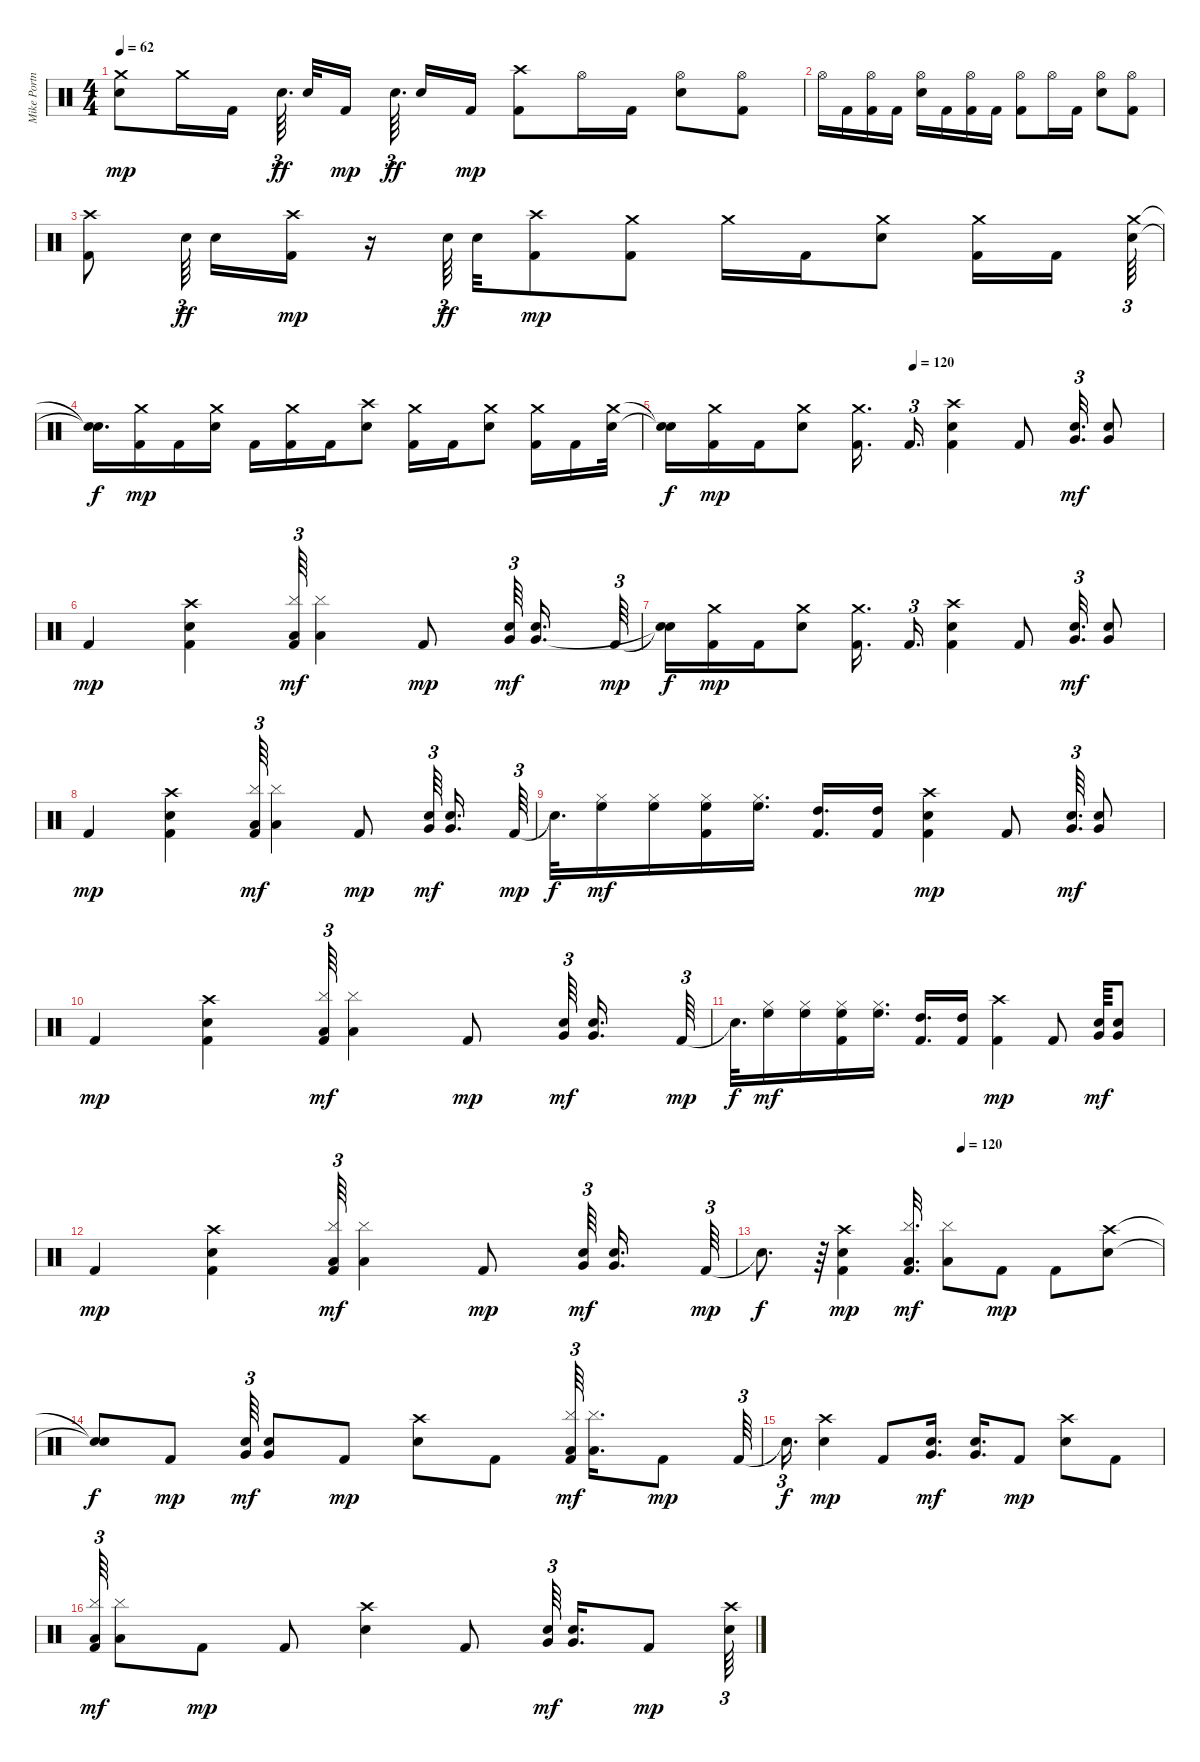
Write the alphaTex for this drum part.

\track ("Mike Portnoy" "Mike Portn") {instrument percussion}
\staff {score}
\articulation defaults
\ts (4 4)
\tempo 62
\clef neutral
\ks c
("Electric Snare (hit)" "Crash medium (hit)").8{dy mp} "Crash medium (hit)".16 "Kick (hit) 2".16 "Electric Snare (hit)".64{d tu (3 2) dy ff} "Electric Snare (hit)".32 "Kick (hit) 2".16{dy mp} "Electric Snare (hit)".64{d tu (3 2) dy ff} "Electric Snare (hit)".16 "Kick (hit) 2".16{dy mp} ("Kick (hit) 2" "Crash high (hit)").8 "Hi-Hat (open)".16 "Kick (hit) 2".16 ("Electric Snare (hit)" "Hi-Hat (open)").8 ("Kick (hit) 2" "Hi-Hat (open)").8 |
"Hi-Hat (open)".16 "Kick (hit) 2".16 ("Kick (hit) 2" "Hi-Hat (open)").16 "Kick (hit) 2".16 ("Electric Snare (hit)" "Hi-Hat (open)").16 "Kick (hit) 2".16 ("Kick (hit) 2" "Hi-Hat (open)").16 "Kick (hit) 2".16 ("Kick (hit) 2" "Hi-Hat (open)").8 "Hi-Hat (open)".16 "Kick (hit) 2".16 ("Electric Snare (hit)" "Hi-Hat (open)").8 ("Kick (hit) 2" "Hi-Hat (open)").8 |
("Kick (hit) 2" "Crash high (hit)").8 "Electric Snare (hit)".64{tu (3 2) dy ff} "Electric Snare (hit)".16 ("Kick (hit) 2" "Crash high (hit)").16{dy mp} r.16 "Electric Snare (hit)".64{tu (3 2) dy ff} "Electric Snare (hit)".32 ("Kick (hit) 2" "Crash high (hit)").8{dy mp} ("Kick (hit) 2" "Crash medium (hit)").8 "Crash medium (hit)".16 "Kick (hit) 2".16 ("Electric Snare (hit)" "Crash medium (hit)").8 ("Kick (hit) 2" "Crash medium (hit)").16 "Kick (hit) 2".16 ("Electric Snare (hit)" "Crash medium (hit)").64{tu (3 2)} |
("Snare (hit)"{t} "Snare (hit)"{t}).16{d dy f} ("Kick (hit) 2" "Crash medium (hit)").16{dy mp} "Kick (hit) 2".16 ("Electric Snare (hit)" "Crash medium (hit)").16 "Kick (hit) 2".16 ("Kick (hit) 2" "Crash medium (hit)").16 "Kick (hit) 2".16 ("Electric Snare (hit)" "Crash high (hit)").8 ("Kick (hit) 2" "Crash medium (hit)").16 "Kick (hit) 2".16 ("Electric Snare (hit)" "Crash medium (hit)").8 ("Kick (hit) 2" "Crash medium (hit)").16 "Kick (hit) 2".16 ("Electric Snare (hit)" "Crash medium (hit)").32 |
\tempo (120 0.5)
("Snare (hit)"{t} "Snare (hit)"{t}).16{dy f} ("Kick (hit) 2" "Crash medium (hit)").16{dy mp} "Kick (hit) 2".16 ("Electric Snare (hit)" "Crash medium (hit)").8 ("Kick (hit) 2" "Crash medium (hit)").16{d} "Kick (hit) 2".16{d tu (3 2)} ("Kick (hit) 2" "Electric Snare (hit)" "Crash high (hit)").4 "Kick (hit) 2".8 ("Snare (hit)" "Very Low Tom (hit)").32{d tu (3 2) dy mf balance 12} ("Snare (hit)" "Very Low Tom (hit)").8 |
"Kick (hit) 2".4{dy mp} ("Kick (hit) 2" "Electric Snare (hit)" "Crash high (hit)").4 ("Kick (hit) 2" "Cymbal (hit)" "Low Tom (hit)").64{tu (3 2) dy mf balance 10} ("Cymbal (hit)" "Low Tom (hit)").4 "Kick (hit) 2".8{dy mp} ("Snare (hit)" "Very Low Tom (hit)").64{tu (3 2) dy mf balance 12} ("Snare (hit)" "Very Low Tom (hit)").16{d} "Kick (hit) 2".64{tu (3 2) dy mp} |
("Snare (hit)"{t} "Snare (hit)"{t}).16{dy f} ("Kick (hit) 2" "Crash medium (hit)").16{dy mp} "Kick (hit) 2".16 ("Electric Snare (hit)" "Crash medium (hit)").8 ("Kick (hit) 2" "Crash medium (hit)").16{d} "Kick (hit) 2".16{d tu (3 2)} ("Kick (hit) 2" "Electric Snare (hit)" "Crash high (hit)").4 "Kick (hit) 2".8 ("Snare (hit)" "Very Low Tom (hit)").32{d tu (3 2) dy mf balance 12} ("Snare (hit)" "Very Low Tom (hit)").8 |
"Kick (hit) 2".4{dy mp} ("Kick (hit) 2" "Electric Snare (hit)" "Crash high (hit)").4 ("Kick (hit) 2" "Cymbal (hit)" "Low Tom (hit)").64{tu (3 2) dy mf balance 10} ("Cymbal (hit)" "Low Tom (hit)").4 "Kick (hit) 2".8{dy mp} ("Snare (hit)" "Very Low Tom (hit)").64{tu (3 2) dy mf balance 12} ("Snare (hit)" "Very Low Tom (hit)").16{d} "Kick (hit) 2".64{tu (3 2) dy mp} |
"Snare (hit)"{t}.32{d dy f} ("Hi-Hat (closed)" "High Floor Tom (hit)").16{dy mf balance 2} ("Hi-Hat (closed)" "High Floor Tom (hit)").16 ("Kick (hit) 2" "Hi-Hat (closed)" "High Floor Tom (hit)").16 ("Hi-Hat (closed)" "High Floor Tom (hit)").16{d} ("Kick (hit) 2" "High Tom (hit)").16{d balance 5} ("Kick (hit) 2" "High Tom (hit)").16 ("Kick (hit) 2" "Electric Snare (hit)" "Crash high (hit)").4{dy mp} "Kick (hit) 2".8 ("Snare (hit)" "Very Low Tom (hit)").64{d tu (3 2) dy mf balance 12} ("Snare (hit)" "Very Low Tom (hit)").8 |
"Kick (hit) 2".4{dy mp} ("Kick (hit) 2" "Electric Snare (hit)" "Crash high (hit)").4 ("Kick (hit) 2" "Cymbal (hit)" "Low Tom (hit)").64{tu (3 2) dy mf balance 10} ("Cymbal (hit)" "Low Tom (hit)").4 "Kick (hit) 2".8{dy mp} ("Snare (hit)" "Very Low Tom (hit)").64{tu (3 2) dy mf balance 12} ("Snare (hit)" "Very Low Tom (hit)").16{d} "Kick (hit) 2".64{tu (3 2) dy mp} |
"Snare (hit)"{t}.32{d dy f} ("Hi-Hat (closed)" "High Floor Tom (hit)").16{dy mf balance 2} ("Hi-Hat (closed)" "High Floor Tom (hit)").16 ("Kick (hit) 2" "Hi-Hat (closed)" "High Floor Tom (hit)").16 ("Hi-Hat (closed)" "High Floor Tom (hit)").16{d} ("Kick (hit) 2" "High Tom (hit)").16{d balance 5} ("Kick (hit) 2" "High Tom (hit)").16 ("Kick (hit) 2" "Crash high (hit)").4{dy mp} "Kick (hit) 2".8 ("Snare (hit)" "Very Low Tom (hit)").64{dy mf balance 12} ("Snare (hit)" "Very Low Tom (hit)").8 |
"Kick (hit) 2".4{dy mp} ("Kick (hit) 2" "Electric Snare (hit)" "Crash high (hit)").4 ("Kick (hit) 2" "Cymbal (hit)" "Low Tom (hit)").64{tu (3 2) dy mf balance 10} ("Cymbal (hit)" "Low Tom (hit)").4 "Kick (hit) 2".8{dy mp} ("Snare (hit)" "Very Low Tom (hit)").64{tu (3 2) dy mf balance 12} ("Snare (hit)" "Very Low Tom (hit)").16{d} "Kick (hit) 2".64{tu (3 2) dy mp} |
\tempo (120 0.5)
"Snare (hit)"{t}.8{d dy f} r.64 ("Kick (hit) 2" "Electric Snare (hit)" "Crash high (hit)").4{dy mp} ("Kick (hit) 2" "Cymbal (hit)" "Low Tom (hit)").32{d dy mf balance 10} ("Cymbal (hit)" "Low Tom (hit)").8 "Kick (hit) 2".8{dy mp} "Kick (hit) 2".8 ("Electric Snare (hit)" "Crash high (hit)").8{balance 12} |
("Snare (hit)"{t} "Snare (hit)"{t}).8{dy f} "Kick (hit) 2".8{dy mp} ("Snare (hit)" "Very Low Tom (hit)").64{tu (3 2) dy mf} ("Snare (hit)" "Very Low Tom (hit)").8 "Kick (hit) 2".8{dy mp} ("Electric Snare (hit)" "Crash high (hit)").8 "Kick (hit) 2".8 ("Kick (hit) 2" "Cymbal (hit)" "Low Tom (hit)").64{tu (3 2) dy mf balance 10} ("Cymbal (hit)" "Low Tom (hit)").16{d} "Kick (hit) 2".8{dy mp} "Kick (hit) 2".64{tu (3 2)} |
"Snare (hit)"{t}.16{d tu (3 2) dy f} ("Electric Snare (hit)" "Crash high (hit)").4{dy mp} "Kick (hit) 2".8 ("Snare (hit)" "Very Low Tom (hit)").16{d dy mf balance 12} ("Snare (hit)" "Very Low Tom (hit)").16{d} "Kick (hit) 2".8{dy mp} ("Electric Snare (hit)" "Crash high (hit)").8 "Kick (hit) 2".8 |
("Kick (hit) 2" "Cymbal (hit)" "Low Tom (hit)").64{tu (3 2) dy mf balance 10} ("Cymbal (hit)" "Low Tom (hit)").8 "Kick (hit) 2".8{dy mp} "Kick (hit) 2".8 ("Electric Snare (hit)" "Crash high (hit)").4{balance 12} "Kick (hit) 2".8 ("Snare (hit)" "Very Low Tom (hit)").64{tu (3 2) dy mf} ("Snare (hit)" "Very Low Tom (hit)").16{d} "Kick (hit) 2".8{dy mp} ("Electric Snare (hit)" "Crash high (hit)").64{tu (3 2)}
